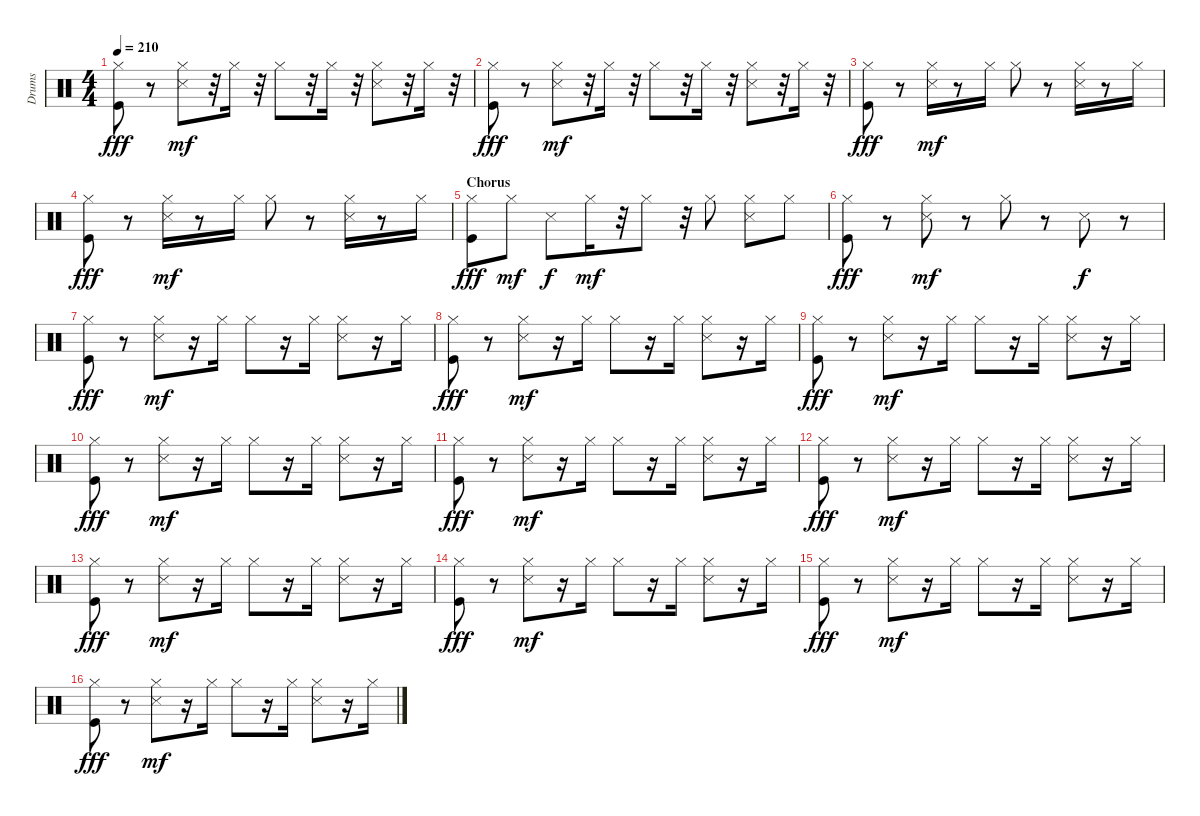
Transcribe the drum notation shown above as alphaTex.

\track ("Drums" "Drums") {instrument percussion}
\staff {score}
\articulation defaults
\ts (4 4)
\tempo 210
\clef neutral
\ks c
("Hi-Hat (closed)" "Kick (hit)").8{dy fff} r.8 ("Hi-Hat (closed)" "Snare (side stick) 3").8{dy mf} r.32 "Hi-Hat (closed)".16 r.32 "Hi-Hat (closed)".8 r.32 "Hi-Hat (closed)".16 r.32 ("Hi-Hat (closed)" "Snare (side stick) 3").8 r.32 "Hi-Hat (closed)".16 r.32 |
("Hi-Hat (closed)" "Kick (hit)").8{dy fff} r.8 ("Hi-Hat (closed)" "Snare (side stick) 3").8{dy mf} r.32 "Hi-Hat (closed)".16 r.32 "Hi-Hat (closed)".8 r.32 "Hi-Hat (closed)".16 r.32 ("Hi-Hat (closed)" "Snare (side stick) 3").8 r.32 "Hi-Hat (closed)".16 r.32 |
("Hi-Hat (closed)" "Kick (hit)").8{dy fff} r.8 ("Hi-Hat (closed)" "Snare (side stick) 3").16{dy mf} r.8 "Hi-Hat (closed)".16 "Hi-Hat (closed)".8 r.8 ("Hi-Hat (closed)" "Snare (side stick) 3").16 r.8 "Hi-Hat (closed)".16 |
("Hi-Hat (closed)" "Kick (hit)").8{dy fff} r.8 ("Hi-Hat (closed)" "Snare (side stick) 3").16{dy mf} r.8 "Hi-Hat (closed)".16 "Hi-Hat (closed)".8 r.8 ("Hi-Hat (closed)" "Snare (side stick) 3").16 r.8 "Hi-Hat (closed)".16 |
\section ("" "Chorus")
("Hi-Hat (closed)" "Kick (hit)").8{dy fff} "Hi-Hat (closed)".8{dy mf} "Snare (side stick) 3".8{dy f} "Hi-Hat (closed)".16{dy mf} r.32 "Hi-Hat (closed)".8 r.32 "Hi-Hat (closed)".8 ("Hi-Hat (closed)" "Snare (side stick) 3").8 "Hi-Hat (closed)".8 |
("Hi-Hat (closed)" "Kick (hit)").8{dy fff} r.8 ("Hi-Hat (closed)" "Snare (side stick) 3").8{dy mf} r.8 "Hi-Hat (closed)".8 r.8 "Snare (side stick) 3".8{dy f} r.8 |
("Hi-Hat (closed)" "Kick (hit)").8{dy fff} r.8 ("Hi-Hat (closed)" "Snare (side stick) 3").8{dy mf} r.16 "Hi-Hat (closed)".16 "Hi-Hat (closed)".8 r.16 "Hi-Hat (closed)".16 ("Hi-Hat (closed)" "Snare (side stick) 3").8 r.16 "Hi-Hat (closed)".16 |
("Hi-Hat (closed)" "Kick (hit)").8{dy fff} r.8 ("Hi-Hat (closed)" "Snare (side stick) 3").8{dy mf} r.16 "Hi-Hat (closed)".16 "Hi-Hat (closed)".8 r.16 "Hi-Hat (closed)".16 ("Hi-Hat (closed)" "Snare (side stick) 3").8 r.16 "Hi-Hat (closed)".16 |
("Hi-Hat (closed)" "Kick (hit)").8{dy fff} r.8 ("Hi-Hat (closed)" "Snare (side stick) 3").8{dy mf} r.16 "Hi-Hat (closed)".16 "Hi-Hat (closed)".8 r.16 "Hi-Hat (closed)".16 ("Hi-Hat (closed)" "Snare (side stick) 3").8 r.16 "Hi-Hat (closed)".16 |
("Hi-Hat (closed)" "Kick (hit)").8{dy fff} r.8 ("Hi-Hat (closed)" "Snare (side stick) 3").8{dy mf} r.16 "Hi-Hat (closed)".16 "Hi-Hat (closed)".8 r.16 "Hi-Hat (closed)".16 ("Hi-Hat (closed)" "Snare (side stick) 3").8 r.16 "Hi-Hat (closed)".16 |
("Hi-Hat (closed)" "Kick (hit)").8{dy fff} r.8 ("Hi-Hat (closed)" "Snare (side stick) 3").8{dy mf} r.16 "Hi-Hat (closed)".16 "Hi-Hat (closed)".8 r.16 "Hi-Hat (closed)".16 ("Hi-Hat (closed)" "Snare (side stick) 3").8 r.16 "Hi-Hat (closed)".16 |
("Hi-Hat (closed)" "Kick (hit)").8{dy fff} r.8 ("Hi-Hat (closed)" "Snare (side stick) 3").8{dy mf} r.16 "Hi-Hat (closed)".16 "Hi-Hat (closed)".8 r.16 "Hi-Hat (closed)".16 ("Hi-Hat (closed)" "Snare (side stick) 3").8 r.16 "Hi-Hat (closed)".16 |
("Hi-Hat (closed)" "Kick (hit)").8{dy fff} r.8 ("Hi-Hat (closed)" "Snare (side stick) 3").8{dy mf} r.16 "Hi-Hat (closed)".16 "Hi-Hat (closed)".8 r.16 "Hi-Hat (closed)".16 ("Hi-Hat (closed)" "Snare (side stick) 3").8 r.16 "Hi-Hat (closed)".16 |
("Hi-Hat (closed)" "Kick (hit)").8{dy fff} r.8 ("Hi-Hat (closed)" "Snare (side stick) 3").8{dy mf} r.16 "Hi-Hat (closed)".16 "Hi-Hat (closed)".8 r.16 "Hi-Hat (closed)".16 ("Hi-Hat (closed)" "Snare (side stick) 3").8 r.16 "Hi-Hat (closed)".16 |
("Hi-Hat (closed)" "Kick (hit)").8{dy fff} r.8 ("Hi-Hat (closed)" "Snare (side stick) 3").8{dy mf} r.16 "Hi-Hat (closed)".16 "Hi-Hat (closed)".8 r.16 "Hi-Hat (closed)".16 ("Hi-Hat (closed)" "Snare (side stick) 3").8 r.16 "Hi-Hat (closed)".16 |
("Hi-Hat (closed)" "Kick (hit)").8{dy fff} r.8 ("Hi-Hat (closed)" "Snare (side stick) 3").8{dy mf} r.16 "Hi-Hat (closed)".16 "Hi-Hat (closed)".8 r.16 "Hi-Hat (closed)".16 ("Hi-Hat (closed)" "Snare (side stick) 3").8 r.16 "Hi-Hat (closed)".16
